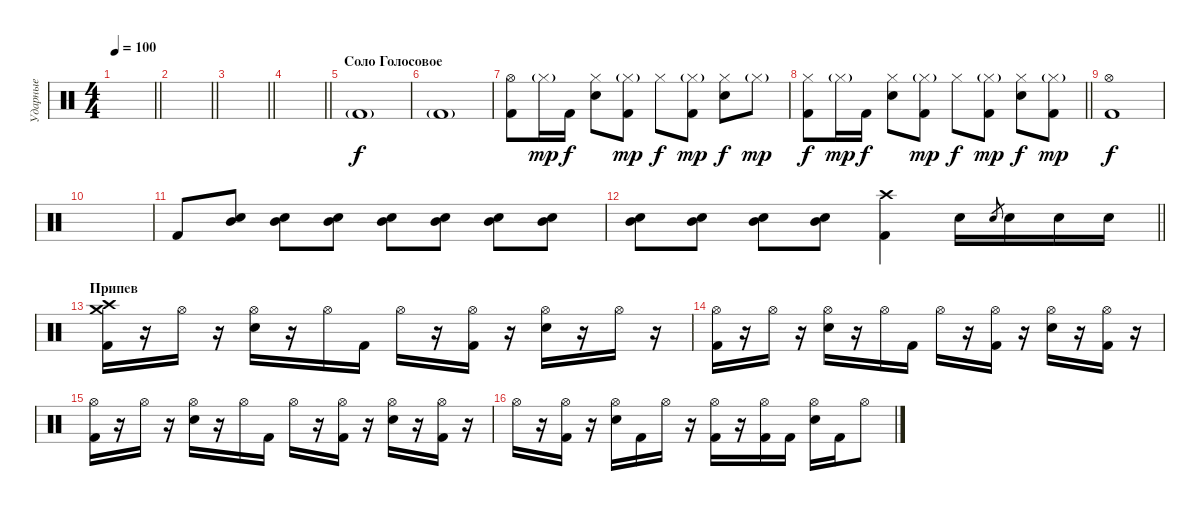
\track ("Ударные" "Ударные") {instrument percussion}
\staff {score}
\articulation defaults
\ts (4 4)
\tempo 100
\clef neutral
\barLineRight lightlight
\ks c
|
\barLineRight lightlight
|
\barLineRight lightlight
|
\barLineRight lightlight
|
\section ("" "Соло Голосовое")
"Kick (hit) 2"{g}.1 |
"Kick (hit) 2"{g}.1 |
("Hi-Hat (open)" "Kick (hit) 2").8{dy f} "Hi-Hat (closed)"{g}.16{dy mp} "Kick (hit) 2".16{dy f} ("Hi-Hat (closed)" "Snare (hit) 2").8 ("Hi-Hat (closed)"{g} "Kick (hit) 2").8{dy mp} "Hi-Hat (closed)".8{dy f} ("Hi-Hat (closed)"{g} "Kick (hit) 2").8{dy mp} ("Hi-Hat (closed)" "Snare (hit) 2").8{dy f} "Hi-Hat (closed)"{g}.8{dy mp} |
\barLineRight lightlight
("Hi-Hat (closed)" "Kick (hit) 2").8{dy f} "Hi-Hat (closed)"{g}.16{dy mp} "Kick (hit) 2".16{dy f} ("Hi-Hat (closed)" "Snare (hit) 2").8 ("Hi-Hat (closed)"{g} "Kick (hit) 2").8{dy mp} "Hi-Hat (closed)".8{dy f} ("Hi-Hat (closed)"{g} "Kick (hit) 2").8{dy mp} ("Hi-Hat (closed)" "Snare (hit) 2").8{dy f} ("Hi-Hat (closed)"{g} "Kick (hit) 2").8{dy mp} |
("Hi-Hat (open)" "Kick (hit) 2").1{dy f} |
|
"Kick (hit) 2".8{volume 5} ("Mid Tom (hit)" "Snare (hit) 2").8{volume 16} ("Mid Tom (hit)" "Snare (hit) 2").8 ("Mid Tom (hit)" "Snare (hit) 2").8 ("Mid Tom (hit)" "Snare (hit) 2").8 ("Mid Tom (hit)" "Snare (hit) 2").8 ("Mid Tom (hit)" "Snare (hit) 2").8 ("Mid Tom (hit)" "Snare (hit) 2").8 |
\barLineRight lightlight
("Mid Tom (hit)" "Snare (hit) 2").8 ("Mid Tom (hit)" "Snare (hit) 2").8 ("Mid Tom (hit)" "Snare (hit) 2").8 ("Mid Tom (hit)" "Snare (hit) 2").8 ("Crash high (hit)" "Kick (hit) 2").4 "Snare (hit) 2".16 "Snare (hit) 2".8{gr} "Snare (hit) 2".16 "Snare (hit) 2".16 "Snare (hit) 2".16 |
\section ("" "Припев")
("Crash medium (hit)" "Crash high (hit)" "Kick (hit) 2").16 r.16 "Hi-Hat (open)".16 r.16 ("Hi-Hat (open)" "Snare (hit) 2").16 r.16 "Hi-Hat (open)".16 "Kick (hit) 2".16 "Hi-Hat (open)".16 r.16 ("Hi-Hat (open)" "Kick (hit) 2").16 r.16 ("Hi-Hat (open)" "Snare (hit) 2").16 r.16 "Hi-Hat (open)".16 r.16 |
("Hi-Hat (open)" "Kick (hit) 2").16 r.16 "Hi-Hat (open)".16 r.16 ("Hi-Hat (open)" "Snare (hit) 2").16 r.16 "Hi-Hat (open)".16 "Kick (hit) 2".16 "Hi-Hat (open)".16 r.16 ("Hi-Hat (open)" "Kick (hit) 2").16 r.16 ("Hi-Hat (open)" "Snare (hit) 2").16 r.16 ("Hi-Hat (open)" "Kick (hit) 2").16 r.16 |
("Hi-Hat (open)" "Kick (hit) 2").16 r.16 "Hi-Hat (open)".16 r.16 ("Hi-Hat (open)" "Snare (hit) 2").16 r.16 "Hi-Hat (open)".16 "Kick (hit) 2".16 "Hi-Hat (open)".16 r.16 ("Hi-Hat (open)" "Kick (hit) 2").16 r.16 ("Hi-Hat (open)" "Snare (hit) 2").16 r.16 ("Hi-Hat (open)" "Kick (hit) 2").16 r.16 |
"Hi-Hat (open)".16 r.16 ("Hi-Hat (open)" "Kick (hit) 2").16 r.16 ("Hi-Hat (open)" "Snare (hit) 2").16 "Kick (hit) 2".16 "Hi-Hat (open)".16 r.16 ("Hi-Hat (open)" "Kick (hit) 2").16 r.16 ("Hi-Hat (open)" "Kick (hit) 2").16 "Kick (hit) 2".16 ("Hi-Hat (open)" "Snare (hit) 2").16 "Kick (hit) 2".16 "Hi-Hat (open)".8
